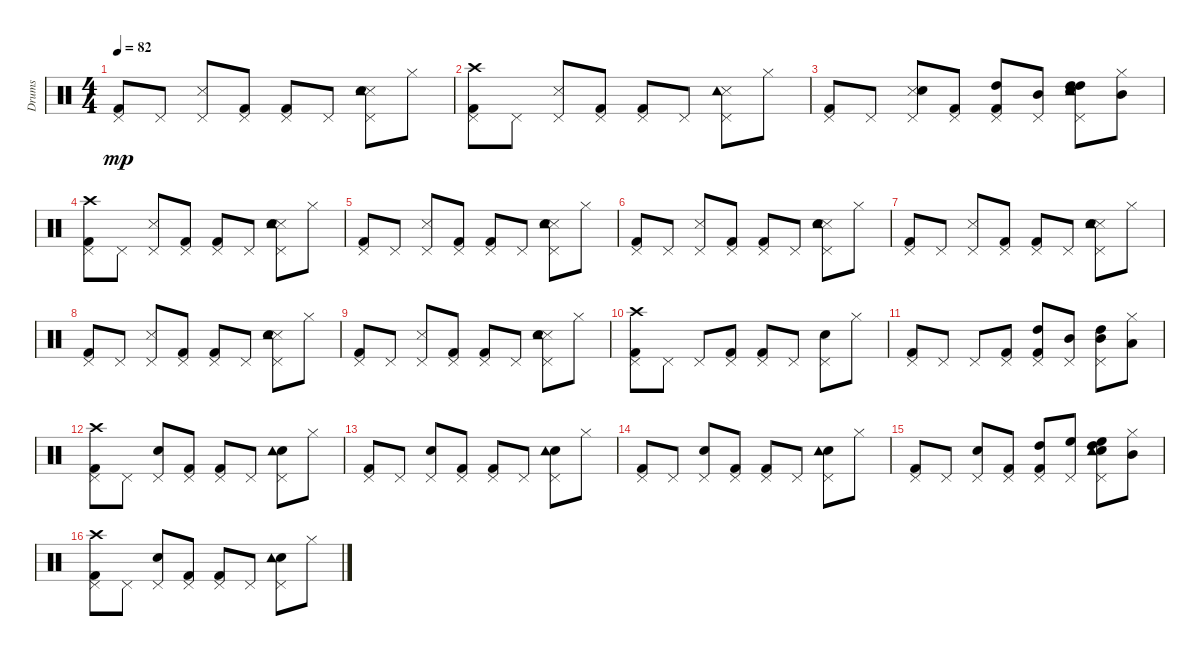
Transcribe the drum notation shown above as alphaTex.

\track ("Drums" "Drums") {instrument percussion}
\staff {score}
\articulation defaults
\ts (4 4)
\tempo 82
\clef neutral
\ks c
("Kick (hit) 2" "Pedal Hi-Hat (hit)").8{dy mp} "Pedal Hi-Hat (hit)".8 ("Snare (side stick) 3" "Pedal Hi-Hat (hit)").8 ("Kick (hit) 2" "Pedal Hi-Hat (hit)").8 ("Kick (hit) 2" "Pedal Hi-Hat (hit)").8 "Pedal Hi-Hat (hit)".8 ("Snare (side stick) 3" "Snare (hit) 2" "Tambourine (hit)" "Pedal Hi-Hat (hit)").8 "Hi-Hat (closed)".8 |
("Kick (hit) 2" "Crash high (hit)" "Pedal Hi-Hat (hit)").8 "Pedal Hi-Hat (hit)".8 ("Snare (side stick) 3" "Pedal Hi-Hat (hit)").8 ("Kick (hit) 2" "Pedal Hi-Hat (hit)").8 ("Kick (hit) 2" "Pedal Hi-Hat (hit)").8 "Pedal Hi-Hat (hit)".8 ("Snare (side stick) 3" "Tambourine (hit)" "Pedal Hi-Hat (hit)").8 "Hi-Hat (closed)".8 |
("Kick (hit) 2" "Pedal Hi-Hat (hit)").8 "Pedal Hi-Hat (hit)".8 ("Snare (side stick) 3" "Snare (hit) 2" "Pedal Hi-Hat (hit)").8 ("Kick (hit) 2" "Pedal Hi-Hat (hit)").8 ("Kick (hit) 2" "High Tom (hit)" "Pedal Hi-Hat (hit)").8 ("Mid Tom (hit)" "Pedal Hi-Hat (hit)").8 ("Snare (side stick) 3" "Snare (hit) 2" "Tambourine (hit)" "High Tom (hit)" "Pedal Hi-Hat (hit)" "High Tom (hit)").8 ("Mid Tom (hit)" "Hi-Hat (closed)").8 |
("Kick (hit) 2" "Crash high (hit)" "Pedal Hi-Hat (hit)").8 "Pedal Hi-Hat (hit)".8 ("Snare (side stick) 3" "Pedal Hi-Hat (hit)").8 ("Kick (hit) 2" "Pedal Hi-Hat (hit)").8 ("Kick (hit) 2" "Pedal Hi-Hat (hit)").8 "Pedal Hi-Hat (hit)".8 ("Snare (side stick) 3" "Snare (hit) 2" "Tambourine (hit)" "Pedal Hi-Hat (hit)").8 "Hi-Hat (closed)".8 |
("Kick (hit) 2" "Pedal Hi-Hat (hit)").8 "Pedal Hi-Hat (hit)".8 ("Snare (side stick) 3" "Pedal Hi-Hat (hit)").8 ("Kick (hit) 2" "Pedal Hi-Hat (hit)").8 ("Kick (hit) 2" "Pedal Hi-Hat (hit)").8 "Pedal Hi-Hat (hit)".8 ("Snare (side stick) 3" "Snare (hit) 2" "Tambourine (hit)" "Pedal Hi-Hat (hit)").8 "Hi-Hat (closed)".8 |
("Kick (hit) 2" "Pedal Hi-Hat (hit)").8 "Pedal Hi-Hat (hit)".8 ("Snare (side stick) 3" "Pedal Hi-Hat (hit)").8 ("Kick (hit) 2" "Pedal Hi-Hat (hit)").8 ("Kick (hit) 2" "Pedal Hi-Hat (hit)").8 "Pedal Hi-Hat (hit)".8 ("Snare (side stick) 3" "Snare (hit) 2" "Tambourine (hit)" "Pedal Hi-Hat (hit)").8 "Hi-Hat (closed)".8 |
("Kick (hit) 2" "Pedal Hi-Hat (hit)").8 "Pedal Hi-Hat (hit)".8 ("Snare (side stick) 3" "Pedal Hi-Hat (hit)").8 ("Kick (hit) 2" "Pedal Hi-Hat (hit)").8 ("Kick (hit) 2" "Pedal Hi-Hat (hit)").8 "Pedal Hi-Hat (hit)".8 ("Snare (side stick) 3" "Snare (hit) 2" "Tambourine (hit)" "Pedal Hi-Hat (hit)").8 "Hi-Hat (closed)".8 |
("Kick (hit) 2" "Pedal Hi-Hat (hit)").8 "Pedal Hi-Hat (hit)".8 ("Snare (side stick) 3" "Pedal Hi-Hat (hit)").8 ("Kick (hit) 2" "Pedal Hi-Hat (hit)").8 ("Kick (hit) 2" "Pedal Hi-Hat (hit)").8 "Pedal Hi-Hat (hit)".8 ("Snare (side stick) 3" "Snare (hit) 2" "Tambourine (hit)" "Pedal Hi-Hat (hit)").8 "Hi-Hat (closed)".8 |
("Kick (hit) 2" "Pedal Hi-Hat (hit)").8 "Pedal Hi-Hat (hit)".8 ("Snare (side stick) 3" "Pedal Hi-Hat (hit)").8 ("Kick (hit) 2" "Pedal Hi-Hat (hit)").8 ("Kick (hit) 2" "Pedal Hi-Hat (hit)").8 "Pedal Hi-Hat (hit)".8 ("Snare (side stick) 3" "Snare (hit) 2" "Tambourine (hit)" "Pedal Hi-Hat (hit)").8 "Hi-Hat (closed)".8 |
("Kick (hit) 2" "Crash high (hit)" "Pedal Hi-Hat (hit)").8 "Pedal Hi-Hat (hit)".8 "Pedal Hi-Hat (hit)".8 ("Kick (hit) 2" "Pedal Hi-Hat (hit)").8 ("Kick (hit) 2" "Pedal Hi-Hat (hit)").8 "Pedal Hi-Hat (hit)".8 ("Snare (hit) 2" "Pedal Hi-Hat (hit)").8 "Hi-Hat (closed)".8 |
("Kick (hit) 2" "Pedal Hi-Hat (hit)").8 "Pedal Hi-Hat (hit)".8 "Pedal Hi-Hat (hit)".8 ("Kick (hit) 2" "Pedal Hi-Hat (hit)").8 ("Kick (hit) 2" "High Tom (hit)" "Pedal Hi-Hat (hit)").8 ("Mid Tom (hit)" "Pedal Hi-Hat (hit)").8 ("High Tom (hit)" "Pedal Hi-Hat (hit)" "Mid Tom (hit)").8 ("Low Tom (hit)" "Hi-Hat (closed)").8 |
("Kick (hit) 2" "Crash high (hit)" "Pedal Hi-Hat (hit)").8 "Pedal Hi-Hat (hit)".8 ("Snare (hit) 2" "Pedal Hi-Hat (hit)").8 ("Kick (hit) 2" "Pedal Hi-Hat (hit)").8 ("Kick (hit) 2" "Pedal Hi-Hat (hit)").8 "Pedal Hi-Hat (hit)".8 ("Snare (hit) 2" "Tambourine (hit)" "Pedal Hi-Hat (hit)").8 "Hi-Hat (closed)".8 |
("Kick (hit) 2" "Pedal Hi-Hat (hit)").8 "Pedal Hi-Hat (hit)".8 ("Snare (hit) 2" "Pedal Hi-Hat (hit)").8 ("Kick (hit) 2" "Pedal Hi-Hat (hit)").8 ("Kick (hit) 2" "Pedal Hi-Hat (hit)").8 "Pedal Hi-Hat (hit)".8 ("Snare (hit) 2" "Tambourine (hit)" "Pedal Hi-Hat (hit)").8 "Hi-Hat (closed)".8 |
("Kick (hit) 2" "Pedal Hi-Hat (hit)").8 "Pedal Hi-Hat (hit)".8 ("Snare (hit) 2" "Pedal Hi-Hat (hit)").8 ("Kick (hit) 2" "Pedal Hi-Hat (hit)").8 ("Kick (hit) 2" "Pedal Hi-Hat (hit)").8 "Pedal Hi-Hat (hit)".8 ("Snare (hit) 2" "Tambourine (hit)" "Pedal Hi-Hat (hit)").8 "Hi-Hat (closed)".8 |
("Kick (hit) 2" "Pedal Hi-Hat (hit)").8 "Pedal Hi-Hat (hit)".8 ("Snare (hit) 2" "Pedal Hi-Hat (hit)").8 ("Kick (hit) 2" "Pedal Hi-Hat (hit)").8 ("Kick (hit) 2" "High Tom (hit)" "Pedal Hi-Hat (hit)").8 ("High Floor Tom (hit)" "Pedal Hi-Hat (hit)").8 ("Snare (hit) 2" "Tambourine (hit)" "High Floor Tom (hit)" "Pedal Hi-Hat (hit)" "High Tom (hit)").8 ("Mid Tom (hit)" "Hi-Hat (closed)").8 |
("Kick (hit) 2" "Crash high (hit)" "Pedal Hi-Hat (hit)").8 "Pedal Hi-Hat (hit)".8 ("Snare (hit) 2" "Pedal Hi-Hat (hit)").8 ("Kick (hit) 2" "Pedal Hi-Hat (hit)").8 ("Kick (hit) 2" "Pedal Hi-Hat (hit)").8 "Pedal Hi-Hat (hit)".8 ("Snare (hit) 2" "Tambourine (hit)" "Pedal Hi-Hat (hit)").8 "Hi-Hat (closed)".8
